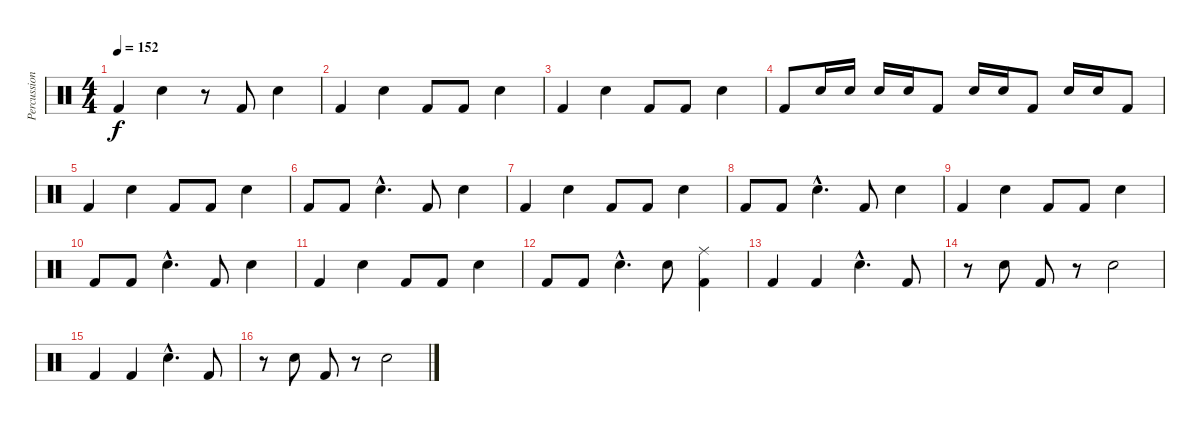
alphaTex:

\track ("Percussion" "Percussion") {instrument percussion}
\staff {score}
\articulation defaults
\ts (4 4)
\tempo 152
\clef neutral
\ks c "Kick (hit) 2".4{dy f} "Electric Snare (hit)".4
r.8 "Kick (hit) 2".8 "Electric Snare (hit)".4 |
"Kick (hit) 2".4 "Electric Snare (hit)".4 "Kick (hit) 2".8 "Kick (hit) 2".8 "Electric Snare (hit)".4 |
"Kick (hit) 2".4 "Electric Snare (hit)".4 "Kick (hit) 2".8 "Kick (hit) 2".8 "Electric Snare (hit)".4 |
"Kick (hit) 2".8 "Snare (hit) 2".16 "Snare (hit) 2".16 "Snare (hit) 2".16 "Snare (hit) 2".16 "Kick (hit) 2".8 "Snare (hit) 2".16 "Snare (hit) 2".16 "Kick (hit) 2".8 "Snare (hit) 2".16 "Snare (hit) 2".16 "Kick (hit) 2".8 |
"Kick (hit) 2".4 "Snare (hit) 2".4 "Kick (hit) 2".8 "Kick (hit) 2".8 "Snare (hit) 2".4 |
"Kick (hit) 2".8 "Kick (hit) 2".8 "Snare (hit) 2"{hac}.4{d} "Kick (hit) 2".8 "Snare (hit) 2".4 |
"Kick (hit) 2".4 "Snare (hit) 2".4 "Kick (hit) 2".8 "Kick (hit) 2".8 "Snare (hit) 2".4 |
"Kick (hit) 2".8 "Kick (hit) 2".8 "Snare (hit) 2"{hac}.4{d} "Kick (hit) 2".8 "Snare (hit) 2".4 |
"Kick (hit) 2".4 "Snare (hit) 2".4 "Kick (hit) 2".8 "Kick (hit) 2".8 "Snare (hit) 2".4 |
"Kick (hit) 2".8 "Kick (hit) 2".8 "Snare (hit) 2"{hac}.4{d} "Kick (hit) 2".8 "Snare (hit) 2".4 |
"Kick (hit) 2".4 "Snare (hit) 2".4 "Kick (hit) 2".8 "Kick (hit) 2".8 "Snare (hit) 2".4 |
"Kick (hit) 2".8 "Kick (hit) 2".8 "Snare (hit) 2"{hac}.4{d} "Snare (hit) 2".8 ("Kick (hit) 2" "Ride (middle)").4 |
"Kick (hit) 2".4 "Kick (hit) 2".4 "Snare (hit) 2"{hac}.4{d} "Kick (hit) 2".8 |
r.8 "Snare (hit) 2".8 "Kick (hit) 2".8 r.8 "Snare (hit) 2".2 |
"Kick (hit) 2".4 "Kick (hit) 2".4 "Snare (hit) 2"{hac}.4{d} "Kick (hit) 2".8 |
r.8 "Snare (hit) 2".8 "Kick (hit) 2".8 r.8 "Snare (hit) 2".2
